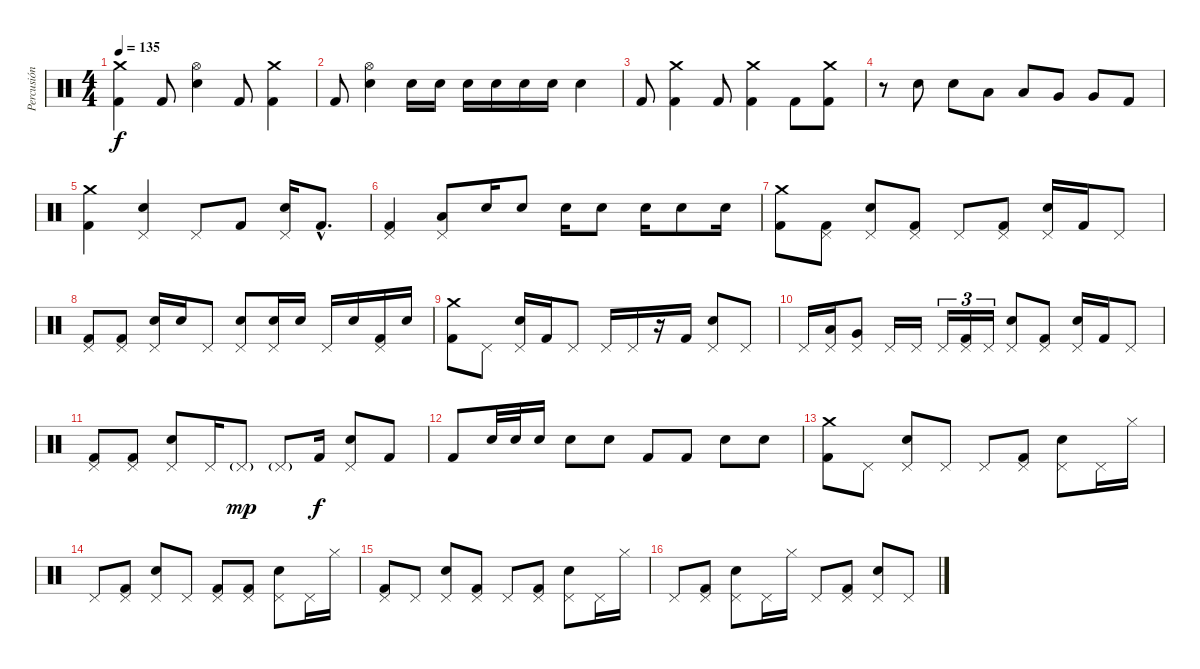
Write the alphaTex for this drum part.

\track ("Percusión" "Percusión") {instrument percussion}
\staff {score}
\articulation defaults
\ts (4 4)
\tempo 135
\clef neutral
\ks c
("Crash medium (hit)" "Kick (hit) 2").4{dy f} "Kick (hit) 2".8 ("Hi-Hat (open)" "Electric Snare (hit)").4 "Kick (hit) 2".8 ("Crash medium (hit)" "Kick (hit) 2").4 |
"Kick (hit) 2".8 ("Hi-Hat (open)" "Electric Snare (hit)").4 "Electric Snare (hit)".16 "Electric Snare (hit)".16 "Electric Snare (hit)".16 "Electric Snare (hit)".16 "Electric Snare (hit)".16 "Electric Snare (hit)".16 "Electric Snare (hit)".4 |
"Kick (hit) 2".8 ("Crash medium (hit)" "Kick (hit) 2").4 "Kick (hit) 2".8 ("Crash medium (hit)" "Kick (hit) 2").4 "Kick (hit) 2".8 ("Crash medium (hit)" "Kick (hit) 2").8 |
r.8 "Electric Snare (hit)".8 "Electric Snare (hit)".8 "Low Tom (hit)".8 "Low Tom (hit)".8 "Very Low Tom (hit)".8 "Very Low Tom (hit)".8 "Kick (hit) 2".8 |
("Crash medium (hit)" "Kick (hit) 2").4 ("Pedal Hi-Hat (hit)" "Electric Snare (hit)").4 "Pedal Hi-Hat (hit)".8 "Kick (hit) 2".8 ("Pedal Hi-Hat (hit)" "Electric Snare (hit)").16 "Kick (hit) 2"{hac}.8{d} |
("Pedal Hi-Hat (hit)" "Kick (hit) 2").4 ("Pedal Hi-Hat (hit)" "Low Tom (hit)").8 "Electric Snare (hit)".16 "Electric Snare (hit)".8 "Electric Snare (hit)".16 "Electric Snare (hit)".8 "Electric Snare (hit)".16 "Electric Snare (hit)".8 "Electric Snare (hit)".16 |
("Crash medium (hit)" "Kick (hit) 2").8 ("Pedal Hi-Hat (hit)" "Kick (hit) 2").8 ("Pedal Hi-Hat (hit)" "Electric Snare (hit)").8 ("Pedal Hi-Hat (hit)" "Kick (hit) 2").8 "Pedal Hi-Hat (hit)".8 ("Pedal Hi-Hat (hit)" "Kick (hit) 2").8 ("Pedal Hi-Hat (hit)" "Electric Snare (hit)").16 "Kick (hit) 2".16 "Pedal Hi-Hat (hit)".8 |
("Pedal Hi-Hat (hit)" "Kick (hit) 2").8 ("Pedal Hi-Hat (hit)" "Kick (hit) 2").8 ("Pedal Hi-Hat (hit)" "Electric Snare (hit)").16 "Electric Snare (hit)".16 "Pedal Hi-Hat (hit)".8 ("Pedal Hi-Hat (hit)" "Electric Snare (hit)").8 ("Pedal Hi-Hat (hit)" "Electric Snare (hit)").16 "Electric Snare (hit)".16 "Pedal Hi-Hat (hit)".16 "Electric Snare (hit)".16 ("Pedal Hi-Hat (hit)" "Kick (hit) 2").16 "Electric Snare (hit)".16 |
("Crash medium (hit)" "Kick (hit) 2").8 "Pedal Hi-Hat (hit)".8 ("Pedal Hi-Hat (hit)" "Electric Snare (hit)").16 "Kick (hit) 2".16 "Pedal Hi-Hat (hit)".8 "Pedal Hi-Hat (hit)".16 "Pedal Hi-Hat (hit)".16 r.16 "Kick (hit) 2".16 ("Pedal Hi-Hat (hit)" "Electric Snare (hit)").8 "Pedal Hi-Hat (hit)".8 |
"Pedal Hi-Hat (hit)".16 ("Pedal Hi-Hat (hit)" "Low Tom (hit)").16 ("Pedal Hi-Hat (hit)" "Very Low Tom (hit)").8 "Pedal Hi-Hat (hit)".16 "Pedal Hi-Hat (hit)".16 "Pedal Hi-Hat (hit)".16{tu (3 2)} ("Pedal Hi-Hat (hit)" "Kick (hit) 2").16{tu (3 2)} "Pedal Hi-Hat (hit)".16{tu (3 2)} ("Pedal Hi-Hat (hit)" "Electric Snare (hit)").8 ("Pedal Hi-Hat (hit)" "Kick (hit) 2").8 ("Pedal Hi-Hat (hit)" "Electric Snare (hit)").16 "Kick (hit) 2".16 "Pedal Hi-Hat (hit)".8 |
("Pedal Hi-Hat (hit)" "Kick (hit) 2").8 ("Pedal Hi-Hat (hit)" "Kick (hit) 2").8 ("Pedal Hi-Hat (hit)" "Electric Snare (hit)").8 "Pedal Hi-Hat (hit)".16 "Pedal Hi-Hat (hit)"{g}.8{dy mp} "Pedal Hi-Hat (hit)"{g}.8 "Kick (hit) 2".16{dy f} ("Pedal Hi-Hat (hit)" "Electric Snare (hit)").8 "Kick (hit) 2".8 |
"Kick (hit) 2".8 "Electric Snare (hit)".32 "Electric Snare (hit)".32 "Electric Snare (hit)".16 "Electric Snare (hit)".8 "Electric Snare (hit)".8 "Kick (hit) 2".8 "Kick (hit) 2".8 "Electric Snare (hit)".8 "Electric Snare (hit)".8 |
("Crash medium (hit)" "Kick (hit) 2").8 "Pedal Hi-Hat (hit)".8 ("Pedal Hi-Hat (hit)" "Electric Snare (hit)").8 "Pedal Hi-Hat (hit)".8 "Pedal Hi-Hat (hit)".8 ("Pedal Hi-Hat (hit)" "Kick (hit) 2").8 ("Pedal Hi-Hat (hit)" "Electric Snare (hit)").8 "Pedal Hi-Hat (hit)".16 "Hi-Hat (closed)".16 |
"Pedal Hi-Hat (hit)".8 ("Pedal Hi-Hat (hit)" "Kick (hit) 2").8 ("Pedal Hi-Hat (hit)" "Electric Snare (hit)").8 "Pedal Hi-Hat (hit)".8 ("Pedal Hi-Hat (hit)" "Kick (hit) 2").8 ("Pedal Hi-Hat (hit)" "Kick (hit) 2").8 ("Pedal Hi-Hat (hit)" "Electric Snare (hit)").8 "Pedal Hi-Hat (hit)".16 "Hi-Hat (closed)".16 |
("Pedal Hi-Hat (hit)" "Kick (hit) 2").8 "Pedal Hi-Hat (hit)".8 ("Pedal Hi-Hat (hit)" "Electric Snare (hit)").8 ("Pedal Hi-Hat (hit)" "Kick (hit) 2").8 "Pedal Hi-Hat (hit)".8 ("Pedal Hi-Hat (hit)" "Kick (hit) 2").8 ("Pedal Hi-Hat (hit)" "Electric Snare (hit)").8 "Pedal Hi-Hat (hit)".16 "Hi-Hat (closed)".16 |
"Pedal Hi-Hat (hit)".8 ("Pedal Hi-Hat (hit)" "Kick (hit) 2").8 ("Pedal Hi-Hat (hit)" "Electric Snare (hit)").8 "Pedal Hi-Hat (hit)".16 "Hi-Hat (closed)".16 "Pedal Hi-Hat (hit)".8 ("Pedal Hi-Hat (hit)" "Kick (hit) 2").8 ("Pedal Hi-Hat (hit)" "Electric Snare (hit)").8 "Pedal Hi-Hat (hit)".8
